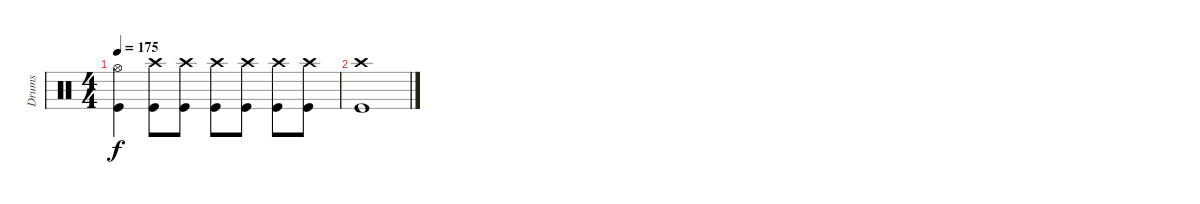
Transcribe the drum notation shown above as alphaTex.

\track ("Drums" "Drums") {instrument percussion}
\staff {score}
\articulation defaults
\ts (4 4)
\tempo 175
\clef neutral
\ks c
("Hi-Hat (open)" "Kick (hit)").4{dy f} ("Crash high (hit)" "Kick (hit)").8 ("Crash high (hit)" "Kick (hit)").8 ("Crash high (hit)" "Kick (hit)").8 ("Crash high (hit)" "Kick (hit)").8 ("Crash high (hit)" "Kick (hit)").8 ("Crash high (hit)" "Kick (hit)").8 |
("Crash high (hit)" "Kick (hit)").1
